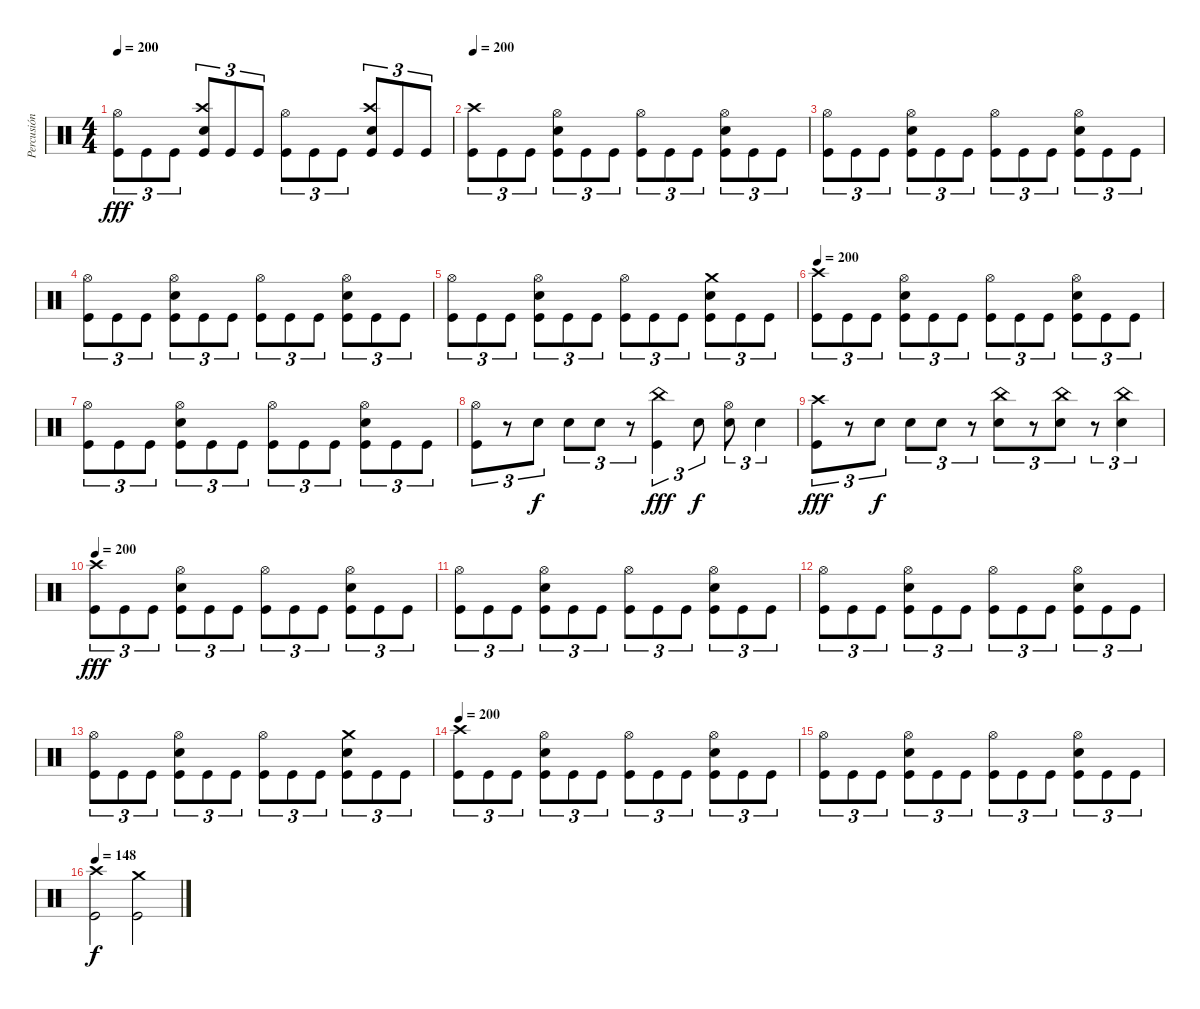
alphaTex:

\track ("Percusión" "Percusión") {instrument percussion}
\staff {score}
\articulation defaults
\ts (4 4)
\tempo 200
\clef neutral
\ks c
("Hi-Hat (open)" "Kick (hit)").8{tu (3 2) dy fff} "Kick (hit)".8{tu (3 2)} "Kick (hit)".8{tu (3 2)} ("Crash high (hit)" "Electric Snare (hit)" "Kick (hit)").8{tu (3 2)} "Kick (hit)".8{tu (3 2)} "Kick (hit)".8{tu (3 2)} ("Hi-Hat (open)" "Kick (hit)").8{tu (3 2)} "Kick (hit)".8{tu (3 2)} "Kick (hit)".8{tu (3 2)} ("Crash high (hit)" "Electric Snare (hit)" "Kick (hit)").8{tu (3 2)} "Kick (hit)".8{tu (3 2)} "Kick (hit)".8{tu (3 2)} |
\tempo 200
("Crash high (hit)" "Kick (hit)").8{tu (3 2)} "Kick (hit)".8{tu (3 2)} "Kick (hit)".8{tu (3 2)} ("Hi-Hat (open)" "Electric Snare (hit)" "Kick (hit)").8{tu (3 2)} "Kick (hit)".8{tu (3 2)} "Kick (hit)".8{tu (3 2)} ("Hi-Hat (open)" "Kick (hit)").8{tu (3 2)} "Kick (hit)".8{tu (3 2)} "Kick (hit)".8{tu (3 2)} ("Hi-Hat (open)" "Electric Snare (hit)" "Kick (hit)").8{tu (3 2)} "Kick (hit)".8{tu (3 2)} "Kick (hit)".8{tu (3 2)} |
("Hi-Hat (open)" "Kick (hit)").8{tu (3 2)} "Kick (hit)".8{tu (3 2)} "Kick (hit)".8{tu (3 2)} ("Hi-Hat (open)" "Electric Snare (hit)" "Kick (hit)").8{tu (3 2)} "Kick (hit)".8{tu (3 2)} "Kick (hit)".8{tu (3 2)} ("Hi-Hat (open)" "Kick (hit)").8{tu (3 2)} "Kick (hit)".8{tu (3 2)} "Kick (hit)".8{tu (3 2)} ("Hi-Hat (open)" "Electric Snare (hit)" "Kick (hit)").8{tu (3 2)} "Kick (hit)".8{tu (3 2)} "Kick (hit)".8{tu (3 2)} |
("Hi-Hat (open)" "Kick (hit)").8{tu (3 2)} "Kick (hit)".8{tu (3 2)} "Kick (hit)".8{tu (3 2)} ("Hi-Hat (open)" "Electric Snare (hit)" "Kick (hit)").8{tu (3 2)} "Kick (hit)".8{tu (3 2)} "Kick (hit)".8{tu (3 2)} ("Hi-Hat (open)" "Kick (hit)").8{tu (3 2)} "Kick (hit)".8{tu (3 2)} "Kick (hit)".8{tu (3 2)} ("Hi-Hat (open)" "Electric Snare (hit)" "Kick (hit)").8{tu (3 2)} "Kick (hit)".8{tu (3 2)} "Kick (hit)".8{tu (3 2)} |
("Hi-Hat (open)" "Kick (hit)").8{tu (3 2)} "Kick (hit)".8{tu (3 2)} "Kick (hit)".8{tu (3 2)} ("Hi-Hat (open)" "Electric Snare (hit)" "Kick (hit)").8{tu (3 2)} "Kick (hit)".8{tu (3 2)} "Kick (hit)".8{tu (3 2)} ("Hi-Hat (open)" "Kick (hit)").8{tu (3 2)} "Kick (hit)".8{tu (3 2)} "Kick (hit)".8{tu (3 2)} ("Crash medium (hit)" "Electric Snare (hit)" "Kick (hit)").8{tu (3 2)} "Kick (hit)".8{tu (3 2)} "Kick (hit)".8{tu (3 2)} |
\tempo 200
("Crash high (hit)" "Kick (hit)").8{tu (3 2)} "Kick (hit)".8{tu (3 2)} "Kick (hit)".8{tu (3 2)} ("Hi-Hat (open)" "Electric Snare (hit)" "Kick (hit)").8{tu (3 2)} "Kick (hit)".8{tu (3 2)} "Kick (hit)".8{tu (3 2)} ("Hi-Hat (open)" "Kick (hit)").8{tu (3 2)} "Kick (hit)".8{tu (3 2)} "Kick (hit)".8{tu (3 2)} ("Hi-Hat (open)" "Electric Snare (hit)" "Kick (hit)").8{tu (3 2)} "Kick (hit)".8{tu (3 2)} "Kick (hit)".8{tu (3 2)} |
("Hi-Hat (open)" "Kick (hit)").8{tu (3 2)} "Kick (hit)".8{tu (3 2)} "Kick (hit)".8{tu (3 2)} ("Hi-Hat (open)" "Electric Snare (hit)" "Kick (hit)").8{tu (3 2)} "Kick (hit)".8{tu (3 2)} "Kick (hit)".8{tu (3 2)} ("Hi-Hat (open)" "Kick (hit)").8{tu (3 2)} "Kick (hit)".8{tu (3 2)} "Kick (hit)".8{tu (3 2)} ("Hi-Hat (open)" "Electric Snare (hit)" "Kick (hit)").8{tu (3 2)} "Kick (hit)".8{tu (3 2)} "Kick (hit)".8{tu (3 2)} |
("Hi-Hat (open)" "Kick (hit)").8{tu (3 2)} r.8{tu (3 2)} "Electric Snare (hit)".8{tu (3 2) dy f} "Electric Snare (hit)".8{tu (3 2)} "Electric Snare (hit)".8{tu (3 2)} r.8{tu (3 2)} ("China (hit)" "Kick (hit)").4{tu (3 2) dy fff} "Electric Snare (hit)".8{tu (3 2) dy f} ("Hi-Hat (open)" "Electric Snare (hit)").8{tu (3 2)} "Electric Snare (hit)".4{tu (3 2)} |
("Crash high (hit)" "Kick (hit)").8{tu (3 2) dy fff} r.8{tu (3 2)} "Electric Snare (hit)".8{tu (3 2) dy f} "Electric Snare (hit)".8{tu (3 2)} "Electric Snare (hit)".8{tu (3 2)} r.8{tu (3 2)} ("China (hit)" "Electric Snare (hit)").8{tu (3 2)} r.8{tu (3 2)} ("China (hit)" "Electric Snare (hit)").8{tu (3 2)} r.8{tu (3 2)} ("China (hit)" "Electric Snare (hit)").4{tu (3 2)} |
\tempo 200
("Crash high (hit)" "Kick (hit)").8{tu (3 2) dy fff} "Kick (hit)".8{tu (3 2)} "Kick (hit)".8{tu (3 2)} ("Hi-Hat (open)" "Electric Snare (hit)" "Kick (hit)").8{tu (3 2)} "Kick (hit)".8{tu (3 2)} "Kick (hit)".8{tu (3 2)} ("Hi-Hat (open)" "Kick (hit)").8{tu (3 2)} "Kick (hit)".8{tu (3 2)} "Kick (hit)".8{tu (3 2)} ("Hi-Hat (open)" "Electric Snare (hit)" "Kick (hit)").8{tu (3 2)} "Kick (hit)".8{tu (3 2)} "Kick (hit)".8{tu (3 2)} |
("Hi-Hat (open)" "Kick (hit)").8{tu (3 2)} "Kick (hit)".8{tu (3 2)} "Kick (hit)".8{tu (3 2)} ("Hi-Hat (open)" "Electric Snare (hit)" "Kick (hit)").8{tu (3 2)} "Kick (hit)".8{tu (3 2)} "Kick (hit)".8{tu (3 2)} ("Hi-Hat (open)" "Kick (hit)").8{tu (3 2)} "Kick (hit)".8{tu (3 2)} "Kick (hit)".8{tu (3 2)} ("Hi-Hat (open)" "Electric Snare (hit)" "Kick (hit)").8{tu (3 2)} "Kick (hit)".8{tu (3 2)} "Kick (hit)".8{tu (3 2)} |
("Hi-Hat (open)" "Kick (hit)").8{tu (3 2)} "Kick (hit)".8{tu (3 2)} "Kick (hit)".8{tu (3 2)} ("Hi-Hat (open)" "Electric Snare (hit)" "Kick (hit)").8{tu (3 2)} "Kick (hit)".8{tu (3 2)} "Kick (hit)".8{tu (3 2)} ("Hi-Hat (open)" "Kick (hit)").8{tu (3 2)} "Kick (hit)".8{tu (3 2)} "Kick (hit)".8{tu (3 2)} ("Hi-Hat (open)" "Electric Snare (hit)" "Kick (hit)").8{tu (3 2)} "Kick (hit)".8{tu (3 2)} "Kick (hit)".8{tu (3 2)} |
("Hi-Hat (open)" "Kick (hit)").8{tu (3 2)} "Kick (hit)".8{tu (3 2)} "Kick (hit)".8{tu (3 2)} ("Hi-Hat (open)" "Electric Snare (hit)" "Kick (hit)").8{tu (3 2)} "Kick (hit)".8{tu (3 2)} "Kick (hit)".8{tu (3 2)} ("Hi-Hat (open)" "Kick (hit)").8{tu (3 2)} "Kick (hit)".8{tu (3 2)} "Kick (hit)".8{tu (3 2)} ("Crash medium (hit)" "Electric Snare (hit)" "Kick (hit)").8{tu (3 2)} "Kick (hit)".8{tu (3 2)} "Kick (hit)".8{tu (3 2)} |
\tempo 200
("Crash high (hit)" "Kick (hit)").8{tu (3 2)} "Kick (hit)".8{tu (3 2)} "Kick (hit)".8{tu (3 2)} ("Hi-Hat (open)" "Electric Snare (hit)" "Kick (hit)").8{tu (3 2)} "Kick (hit)".8{tu (3 2)} "Kick (hit)".8{tu (3 2)} ("Hi-Hat (open)" "Kick (hit)").8{tu (3 2)} "Kick (hit)".8{tu (3 2)} "Kick (hit)".8{tu (3 2)} ("Hi-Hat (open)" "Electric Snare (hit)" "Kick (hit)").8{tu (3 2)} "Kick (hit)".8{tu (3 2)} "Kick (hit)".8{tu (3 2)} |
("Hi-Hat (open)" "Kick (hit)").8{tu (3 2)} "Kick (hit)".8{tu (3 2)} "Kick (hit)".8{tu (3 2)} ("Hi-Hat (open)" "Electric Snare (hit)" "Kick (hit)").8{tu (3 2)} "Kick (hit)".8{tu (3 2)} "Kick (hit)".8{tu (3 2)} ("Hi-Hat (open)" "Kick (hit)").8{tu (3 2)} "Kick (hit)".8{tu (3 2)} "Kick (hit)".8{tu (3 2)} ("Hi-Hat (open)" "Electric Snare (hit)" "Kick (hit)").8{tu (3 2)} "Kick (hit)".8{tu (3 2)} "Kick (hit)".8{tu (3 2)} |
\tempo 148
("Crash high (hit)" "Kick (hit)").2{dy f} ("Crash medium (hit)" "Kick (hit)").2
